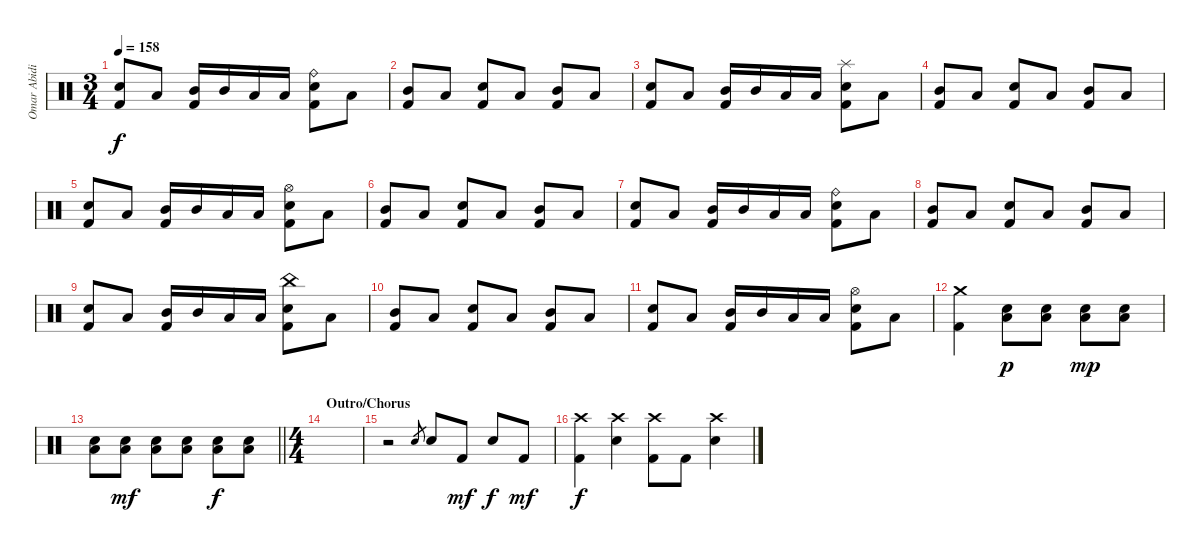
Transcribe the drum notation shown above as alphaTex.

\track ("Omar Abidi" "Omar Abidi") {instrument percussion}
\staff {score}
\articulation defaults
\ts (3 4)
\tempo 158
\clef neutral
\ks c
("Snare (hit) 2" "Kick (hit) 2").8{dy f} "Low Tom (hit)".8 ("Mid Tom (hit)" "Kick (hit) 2").16 "Mid Tom (hit)".16 "Low Tom (hit)".16 "Low Tom (hit)".16 ("Ride (bell)" "Snare (hit) 2" "Kick (hit) 2").8 "Low Tom (hit)".8 |
("Mid Tom (hit)" "Kick (hit) 2").8 "Low Tom (hit)".8 ("Snare (hit) 2" "Kick (hit) 2").8 "Low Tom (hit)".8 ("Mid Tom (hit)" "Kick (hit) 2").8 "Low Tom (hit)".8 |
("Snare (hit) 2" "Kick (hit) 2").8 "Low Tom (hit)".8 ("Mid Tom (hit)" "Kick (hit) 2").16 "Mid Tom (hit)".16 "Low Tom (hit)".16 "Low Tom (hit)".16 ("Splash (hit)" "Snare (hit) 2" "Kick (hit) 2").8 "Low Tom (hit)".8 |
("Mid Tom (hit)" "Kick (hit) 2").8 "Low Tom (hit)".8 ("Snare (hit) 2" "Kick (hit) 2").8 "Low Tom (hit)".8 ("Mid Tom (hit)" "Kick (hit) 2").8 "Low Tom (hit)".8 |
("Snare (hit) 2" "Kick (hit) 2").8 "Low Tom (hit)".8 ("Mid Tom (hit)" "Kick (hit) 2").16 "Mid Tom (hit)".16 "Low Tom (hit)".16 "Low Tom (hit)".16 ("Hi-Hat (open)" "Snare (hit) 2" "Kick (hit) 2").8 "Low Tom (hit)".8 |
("Mid Tom (hit)" "Kick (hit) 2").8 "Low Tom (hit)".8 ("Snare (hit) 2" "Kick (hit) 2").8 "Low Tom (hit)".8 ("Mid Tom (hit)" "Kick (hit) 2").8 "Low Tom (hit)".8 |
("Snare (hit) 2" "Kick (hit) 2").8 "Low Tom (hit)".8 ("Mid Tom (hit)" "Kick (hit) 2").16 "Mid Tom (hit)".16 "Low Tom (hit)".16 "Low Tom (hit)".16 ("Ride (bell)" "Snare (hit) 2" "Kick (hit) 2").8 "Low Tom (hit)".8 |
("Mid Tom (hit)" "Kick (hit) 2").8 "Low Tom (hit)".8 ("Snare (hit) 2" "Kick (hit) 2").8 "Low Tom (hit)".8 ("Mid Tom (hit)" "Kick (hit) 2").8 "Low Tom (hit)".8 |
("Snare (hit) 2" "Kick (hit) 2").8 "Low Tom (hit)".8 ("Mid Tom (hit)" "Kick (hit) 2").16 "Mid Tom (hit)".16 "Low Tom (hit)".16 "Low Tom (hit)".16 ("China (hit)" "Snare (hit) 2" "Kick (hit) 2").8 "Low Tom (hit)".8 |
("Mid Tom (hit)" "Kick (hit) 2").8 "Low Tom (hit)".8 ("Snare (hit) 2" "Kick (hit) 2").8 "Low Tom (hit)".8 ("Mid Tom (hit)" "Kick (hit) 2").8 "Low Tom (hit)".8 |
("Snare (hit) 2" "Kick (hit) 2").8 "Low Tom (hit)".8 ("Mid Tom (hit)" "Kick (hit) 2").16 "Mid Tom (hit)".16 "Low Tom (hit)".16 "Low Tom (hit)".16 ("Hi-Hat (open)" "Snare (hit) 2" "Kick (hit) 2").8 "Low Tom (hit)".8 |
("Crash medium (hit)" "Kick (hit) 2").4 ("Snare (hit) 2" "Low Tom (hit)").8{dy p} ("Snare (hit) 2" "Low Tom (hit)").8 ("Snare (hit) 2" "Low Tom (hit)").8{dy mp} ("Snare (hit) 2" "Low Tom (hit)").8 |
\barLineRight lightlight
("Snare (hit) 2" "Low Tom (hit)").8 ("Snare (hit) 2" "Low Tom (hit)").8{dy mf} ("Snare (hit) 2" "Low Tom (hit)").8 ("Snare (hit) 2" "Low Tom (hit)").8 ("Snare (hit) 2" "Low Tom (hit)").8{dy f} ("Snare (hit) 2" "Low Tom (hit)").8 |
\ts (4 4)
\section ("" "Outro/Chorus")
|
r.2 "Snare (hit) 2".8{gr} "Snare (hit) 2".8 "Kick (hit) 2".8{dy mf} "Snare (hit) 2".8{dy f} "Kick (hit) 2".8{dy mf} |
("Crash high (hit)" "Kick (hit) 2").4{dy f} ("Crash high (hit)" "Snare (hit) 2").4 ("Crash high (hit)" "Kick (hit) 2").8 "Kick (hit) 2".8 ("Crash high (hit)" "Snare (hit) 2").4
